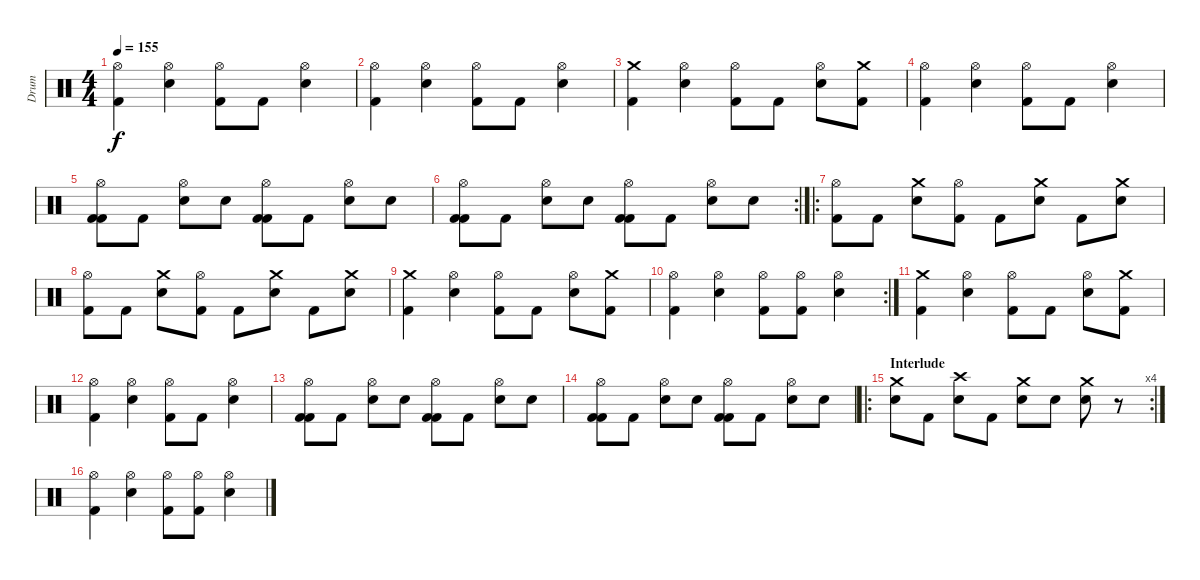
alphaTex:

\track ("Drum" "Drum") {instrument percussion}
\staff {score}
\articulation defaults
\ts (4 4)
\tempo 155
\clef neutral
\ks c
("Hi-Hat (open)" "Kick (hit) 2").4{dy f} ("Hi-Hat (open)" "Snare (hit) 2").4 ("Hi-Hat (open)" "Kick (hit) 2").8 "Kick (hit) 2".8 ("Snare (hit) 2" "Hi-Hat (open)").4 |
("Hi-Hat (open)" "Kick (hit) 2").4 ("Hi-Hat (open)" "Snare (hit) 2").4 ("Hi-Hat (open)" "Kick (hit) 2").8 "Kick (hit) 2".8 ("Snare (hit) 2" "Hi-Hat (open)").4 |
("Kick (hit) 2" "Crash medium (hit)").4 ("Snare (hit) 2" "Hi-Hat (open)").4 ("Kick (hit) 2" "Hi-Hat (open)").8 "Kick (hit) 2".8 ("Hi-Hat (open)" "Snare (hit) 2").8 ("Crash medium (hit)" "Kick (hit) 2").8 |
("Hi-Hat (open)" "Kick (hit) 2").4 ("Hi-Hat (open)" "Snare (hit) 2").4 ("Hi-Hat (open)" "Kick (hit) 2").8 "Kick (hit) 2".8 ("Snare (hit) 2" "Hi-Hat (open)").4 |
("Kick (hit) 2" "Kick (hit) 2" "Hi-Hat (open)").8{bd 480} "Kick (hit) 2".8 ("Snare (hit) 2" "Hi-Hat (open)").8 "Snare (hit) 2".8 ("Kick (hit) 2" "Kick (hit) 2" "Hi-Hat (open)").8{bd 480} "Kick (hit) 2".8 ("Snare (hit) 2" "Hi-Hat (open)").8 "Snare (hit) 2".8 |
\rc 2
("Kick (hit) 2" "Kick (hit) 2" "Hi-Hat (open)").8{bd 480} "Kick (hit) 2".8 ("Snare (hit) 2" "Hi-Hat (open)").8 "Snare (hit) 2".8 ("Kick (hit) 2" "Kick (hit) 2" "Hi-Hat (open)").8{bd 480} "Kick (hit) 2".8 ("Snare (hit) 2" "Hi-Hat (open)").8 "Snare (hit) 2".8 |
\ro
("Kick (hit) 2" "Hi-Hat (open)").8 "Kick (hit) 2".8 ("Snare (hit) 2" "Crash medium (hit)").8 ("Kick (hit) 2" "Hi-Hat (open)").8 "Kick (hit) 2".8 ("Snare (hit) 2" "Crash medium (hit)").8 "Kick (hit) 2".8 ("Snare (hit) 2" "Crash medium (hit)").8 |
("Kick (hit) 2" "Hi-Hat (open)").8 "Kick (hit) 2".8 ("Snare (hit) 2" "Crash medium (hit)").8 ("Kick (hit) 2" "Hi-Hat (open)").8 "Kick (hit) 2".8 ("Snare (hit) 2" "Crash medium (hit)").8 "Kick (hit) 2".8 ("Snare (hit) 2" "Crash medium (hit)").8 |
("Kick (hit) 2" "Crash medium (hit)").4 ("Snare (hit) 2" "Hi-Hat (open)").4 ("Kick (hit) 2" "Hi-Hat (open)").8 "Kick (hit) 2".8 ("Hi-Hat (open)" "Snare (hit) 2").8 ("Crash medium (hit)" "Kick (hit) 2").8 |
\rc 2
("Hi-Hat (open)" "Kick (hit) 2").4 ("Hi-Hat (open)" "Snare (hit) 2").4 ("Hi-Hat (open)" "Kick (hit) 2").8 ("Hi-Hat (open)" "Kick (hit) 2").8 ("Snare (hit) 2" "Hi-Hat (open)").4 |
("Kick (hit) 2" "Crash medium (hit)").4 ("Snare (hit) 2" "Hi-Hat (open)").4 ("Kick (hit) 2" "Hi-Hat (open)").8 "Kick (hit) 2".8 ("Hi-Hat (open)" "Snare (hit) 2").8 ("Crash medium (hit)" "Kick (hit) 2").8 |
("Hi-Hat (open)" "Kick (hit) 2").4 ("Hi-Hat (open)" "Snare (hit) 2").4 ("Hi-Hat (open)" "Kick (hit) 2").8 "Kick (hit) 2".8 ("Snare (hit) 2" "Hi-Hat (open)").4 |
("Kick (hit) 2" "Kick (hit) 2" "Hi-Hat (open)").8{bd 480} "Kick (hit) 2".8 ("Snare (hit) 2" "Hi-Hat (open)").8 "Snare (hit) 2".8 ("Kick (hit) 2" "Kick (hit) 2" "Hi-Hat (open)").8{bd 480} "Kick (hit) 2".8 ("Snare (hit) 2" "Hi-Hat (open)").8 "Snare (hit) 2".8 |
("Kick (hit) 2" "Kick (hit) 2" "Hi-Hat (open)").8{bd 480} "Kick (hit) 2".8 ("Snare (hit) 2" "Hi-Hat (open)").8 "Snare (hit) 2".8 ("Kick (hit) 2" "Kick (hit) 2" "Hi-Hat (open)").8{bd 480} "Kick (hit) 2".8 ("Snare (hit) 2" "Hi-Hat (open)").8 "Snare (hit) 2".8 |
\ro
\rc 4
\section ("" "Interlude")
("Snare (hit) 2" "Crash medium (hit)").8 "Kick (hit) 2".8 ("Snare (hit) 2" "Crash high (hit)").8 "Kick (hit) 2".8 ("Snare (hit) 2" "Crash medium (hit)").8 "Snare (hit) 2".8 ("Crash medium (hit)" "Snare (hit) 2").8 r.8 |
("Hi-Hat (open)" "Kick (hit) 2").4 ("Hi-Hat (open)" "Snare (hit) 2").4 ("Hi-Hat (open)" "Kick (hit) 2").8 ("Hi-Hat (open)" "Kick (hit) 2").8 ("Snare (hit) 2" "Hi-Hat (open)").4
